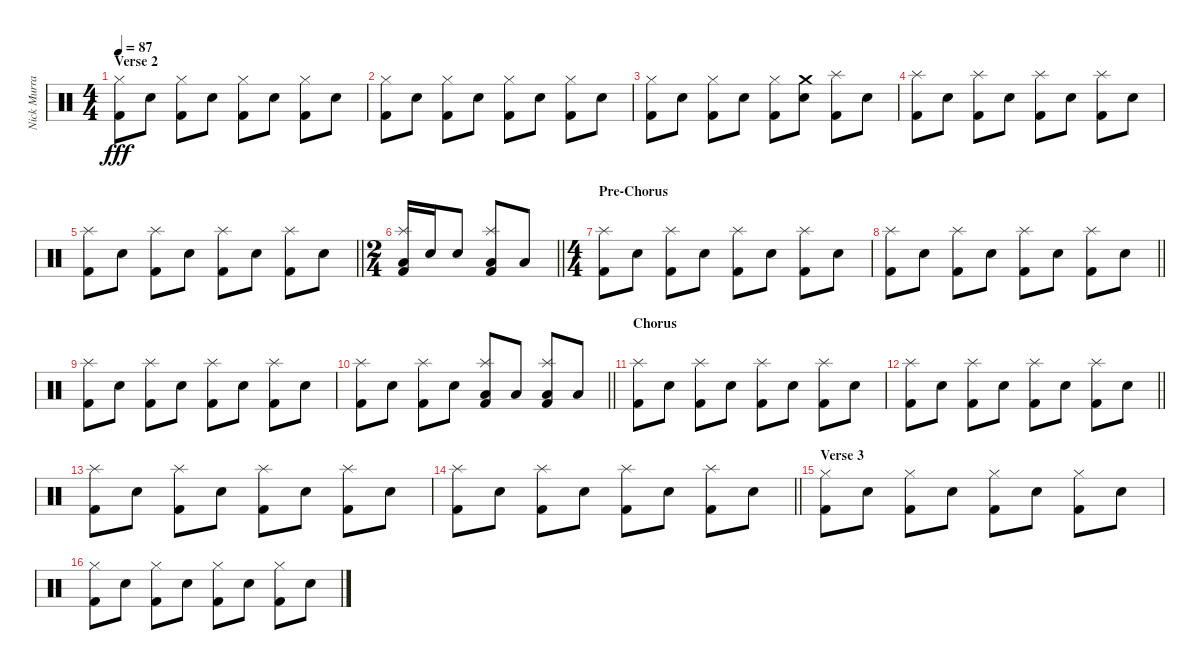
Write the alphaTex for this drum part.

\track ("Nick Murray" "Nick Murra") {instrument percussion}
\staff {score}
\articulation defaults
\ts (4 4)
\section ("" "Verse 2")
\tempo 87
\clef neutral
\ks c
("Hi-Hat (closed)" "Kick (hit) 2").8{dy fff} "Electric Snare (hit)".8 ("Hi-Hat (closed)" "Kick (hit) 2").8 "Electric Snare (hit)".8 ("Hi-Hat (closed)" "Kick (hit) 2").8 "Electric Snare (hit)".8 ("Hi-Hat (closed)" "Kick (hit) 2").8 "Electric Snare (hit)".8 |
("Hi-Hat (closed)" "Kick (hit) 2").8 "Electric Snare (hit)".8 ("Hi-Hat (closed)" "Kick (hit) 2").8 "Electric Snare (hit)".8 ("Hi-Hat (closed)" "Kick (hit) 2").8 "Electric Snare (hit)".8 ("Hi-Hat (closed)" "Kick (hit) 2").8 "Electric Snare (hit)".8 |
("Hi-Hat (closed)" "Kick (hit) 2").8 "Electric Snare (hit)".8 ("Hi-Hat (closed)" "Kick (hit) 2").8 "Electric Snare (hit)".8 ("Hi-Hat (closed)" "Kick (hit) 2").8 ("Crash medium (hit)" "Electric Snare (hit)").8 ("Splash (hit)" "Kick (hit) 2").8 "Electric Snare (hit)".8 |
("Splash (hit)" "Kick (hit) 2").8 "Electric Snare (hit)".8 ("Splash (hit)" "Kick (hit) 2").8 "Electric Snare (hit)".8 ("Splash (hit)" "Kick (hit) 2").8 "Electric Snare (hit)".8 ("Splash (hit)" "Kick (hit) 2").8 "Electric Snare (hit)".8 |
\barLineRight lightlight
("Splash (hit)" "Kick (hit) 2").8 "Electric Snare (hit)".8 ("Splash (hit)" "Kick (hit) 2").8 "Electric Snare (hit)".8 ("Splash (hit)" "Kick (hit) 2").8 "Electric Snare (hit)".8 ("Splash (hit)" "Kick (hit) 2").8 "Electric Snare (hit)".8 |
\ts (2 4)
\barLineRight lightlight
("Splash (hit)" "Low Floor Tom (hit)" "Kick (hit) 2").16 "Electric Snare (hit)".16 "Electric Snare (hit)".8 ("Splash (hit)" "Low Floor Tom (hit)" "Kick (hit) 2").8 "Low Floor Tom (hit)".8 |
\ts (4 4)
\section ("" "Pre-Chorus")
("Splash (hit)" "Kick (hit) 2").8 "Electric Snare (hit)".8 ("Splash (hit)" "Kick (hit) 2").8 "Electric Snare (hit)".8 ("Splash (hit)" "Kick (hit) 2").8 "Electric Snare (hit)".8 ("Splash (hit)" "Kick (hit) 2").8 "Electric Snare (hit)".8 |
\barLineRight lightlight
("Splash (hit)" "Kick (hit) 2").8 "Electric Snare (hit)".8 ("Splash (hit)" "Kick (hit) 2").8 "Electric Snare (hit)".8 ("Splash (hit)" "Kick (hit) 2").8 "Electric Snare (hit)".8 ("Splash (hit)" "Kick (hit) 2").8 "Electric Snare (hit)".8 |
("Splash (hit)" "Kick (hit) 2").8 "Electric Snare (hit)".8 ("Splash (hit)" "Kick (hit) 2").8 "Electric Snare (hit)".8 ("Splash (hit)" "Kick (hit) 2").8 "Electric Snare (hit)".8 ("Splash (hit)" "Kick (hit) 2").8 "Electric Snare (hit)".8 |
\barLineRight lightlight
("Splash (hit)" "Kick (hit) 2").8 "Electric Snare (hit)".8 ("Splash (hit)" "Kick (hit) 2").8 "Electric Snare (hit)".8 ("Splash (hit)" "Low Floor Tom (hit)" "Kick (hit) 2").8 "Low Floor Tom (hit)".8 ("Splash (hit)" "Low Floor Tom (hit)" "Kick (hit) 2").8 "Low Floor Tom (hit)".8 |
\section ("" "Chorus")
("Splash (hit)" "Kick (hit) 2").8 "Electric Snare (hit)".8 ("Splash (hit)" "Kick (hit) 2").8 "Electric Snare (hit)".8 ("Splash (hit)" "Kick (hit) 2").8 "Electric Snare (hit)".8 ("Splash (hit)" "Kick (hit) 2").8 "Electric Snare (hit)".8 |
\barLineRight lightlight
("Splash (hit)" "Kick (hit) 2").8 "Electric Snare (hit)".8 ("Splash (hit)" "Kick (hit) 2").8 "Electric Snare (hit)".8 ("Splash (hit)" "Kick (hit) 2").8 "Electric Snare (hit)".8 ("Splash (hit)" "Kick (hit) 2").8 "Electric Snare (hit)".8 |
("Splash (hit)" "Kick (hit) 2").8 "Electric Snare (hit)".8 ("Splash (hit)" "Kick (hit) 2").8 "Electric Snare (hit)".8 ("Splash (hit)" "Kick (hit) 2").8 "Electric Snare (hit)".8 ("Splash (hit)" "Kick (hit) 2").8 "Electric Snare (hit)".8 |
\barLineRight lightlight
("Splash (hit)" "Kick (hit) 2").8 "Electric Snare (hit)".8 ("Splash (hit)" "Kick (hit) 2").8 "Electric Snare (hit)".8 ("Splash (hit)" "Kick (hit) 2").8 "Electric Snare (hit)".8 ("Splash (hit)" "Kick (hit) 2").8 "Electric Snare (hit)".8 |
\section ("" "Verse 3")
("Hi-Hat (closed)" "Kick (hit) 2").8 "Electric Snare (hit)".8 ("Hi-Hat (closed)" "Kick (hit) 2").8 "Electric Snare (hit)".8 ("Hi-Hat (closed)" "Kick (hit) 2").8 "Electric Snare (hit)".8 ("Hi-Hat (closed)" "Kick (hit) 2").8 "Electric Snare (hit)".8 |
("Hi-Hat (closed)" "Kick (hit) 2").8 "Electric Snare (hit)".8 ("Hi-Hat (closed)" "Kick (hit) 2").8 "Electric Snare (hit)".8 ("Hi-Hat (closed)" "Kick (hit) 2").8 "Electric Snare (hit)".8 ("Hi-Hat (closed)" "Kick (hit) 2").8 "Electric Snare (hit)".8
